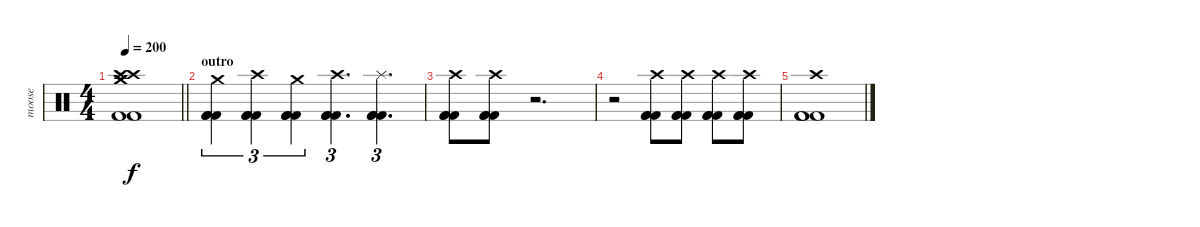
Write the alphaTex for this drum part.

\track ("moose" "moose") {instrument percussion}
\staff {score}
\articulation defaults
\ts (4 4)
\tempo 200
\clef neutral
\barLineRight lightlight
\ks c
("Kick (hit) 2" "Kick (hit) 2" "Crash medium (hit)" "Crash high (hit)" "Crash medium (hit)" "Crash high (hit)").1{dy f} |
\section ("" "outro")
("Kick (hit) 2" "Kick (hit) 2" "Kick (hit) 2" "Crash medium (hit)").4{tu (3 2)} ("Kick (hit) 2" "Kick (hit) 2" "Kick (hit) 2" "Crash high (hit)").4{tu (3 2)} ("Kick (hit) 2" "Kick (hit) 2" "Kick (hit) 2" "Crash medium (hit)").4{tu (3 2)} ("Kick (hit) 2" "Kick (hit) 2" "Kick (hit) 2" "Crash high (hit)").4{d tu (3 2)} ("Kick (hit) 2" "Kick (hit) 2" "Kick (hit) 2" "Splash (hit)").4{d tu (3 2)} |
("Kick (hit) 2" "Kick (hit) 2" "Kick (hit) 2" "Crash high (hit)").8 ("Kick (hit) 2" "Kick (hit) 2" "Kick (hit) 2" "Crash high (hit)").8 r.2{d} |
r.2 ("Kick (hit) 2" "Kick (hit) 2" "Kick (hit) 2" "Crash high (hit)").8 ("Kick (hit) 2" "Kick (hit) 2" "Kick (hit) 2" "Crash high (hit)").8 ("Kick (hit) 2" "Kick (hit) 2" "Kick (hit) 2" "Crash high (hit)").8 ("Kick (hit) 2" "Kick (hit) 2" "Kick (hit) 2" "Crash high (hit)").8 |
("Kick (hit) 2" "Kick (hit) 2" "Kick (hit) 2" "Crash high (hit)").1
